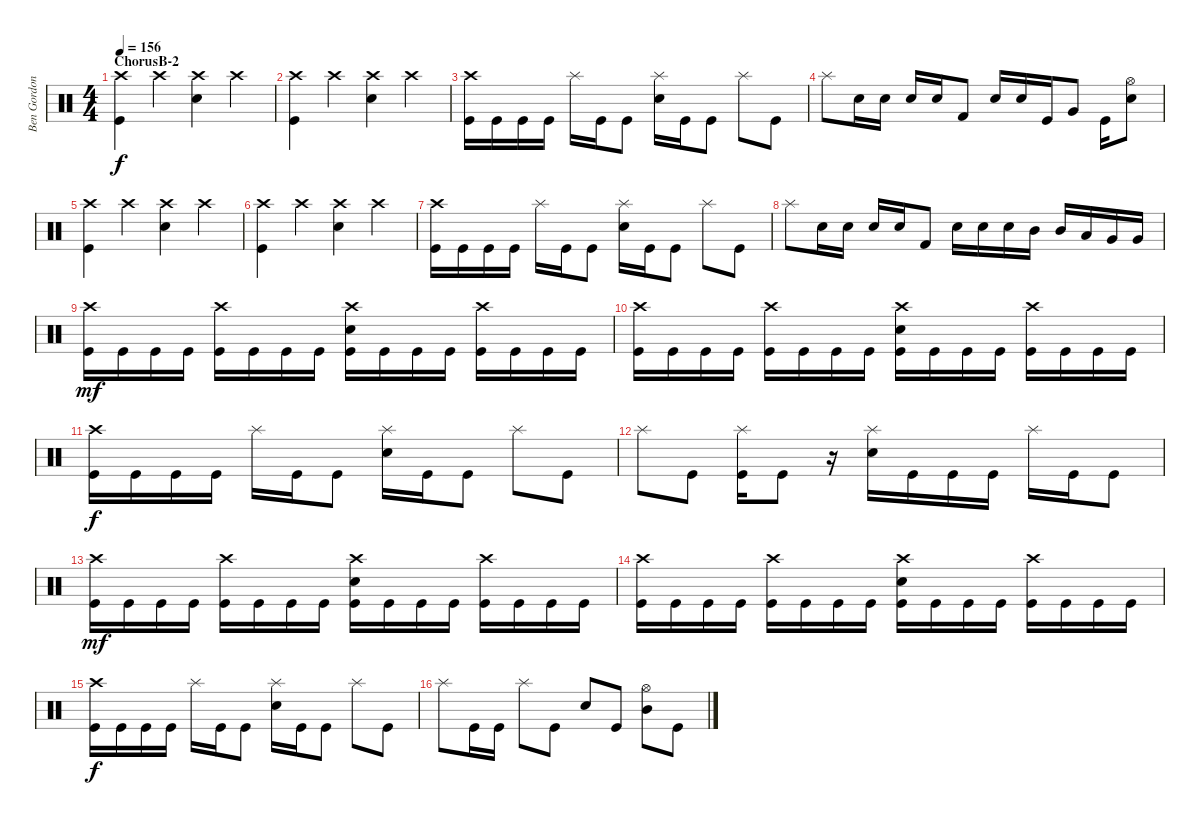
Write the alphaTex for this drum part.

\track ("Ben Gordon" "Ben Gordon") {instrument percussion}
\staff {score}
\articulation defaults
\ts (4 4)
\section ("" "ChorusB-2")
\tempo 156
\clef neutral
\ks c
("Crash high (hit)" "Kick (hit)").4{dy f} "Crash high (hit)".4 ("Crash high (hit)" "Electric Snare (hit)").4 "Crash high (hit)".4 |
("Crash high (hit)" "Kick (hit)").4 "Crash high (hit)".4 ("Crash high (hit)" "Electric Snare (hit)").4 "Crash high (hit)".4 |
("Crash high (hit)" "Kick (hit)").16 "Kick (hit)".16 "Kick (hit)".16 "Kick (hit)".16 "Splash (hit)".16 "Kick (hit)".16 "Kick (hit)".8 ("Splash (hit)" "Electric Snare (hit)").16 "Kick (hit)".16 "Kick (hit)".8 "Splash (hit)".8 "Kick (hit)".8 |
"Splash (hit)".8 "Electric Snare (hit)".16 "Electric Snare (hit)".16 "Electric Snare (hit)".16 "Electric Snare (hit)".16 "Kick (hit) 2".8 "Electric Snare (hit)".16 "Electric Snare (hit)".16 "Kick (hit)".16 "Very Low Tom (hit)".8 "Kick (hit)".16 ("Hi-Hat (open)" "Electric Snare (hit)").8 |
("Crash high (hit)" "Kick (hit)").4 "Crash high (hit)".4 ("Crash high (hit)" "Electric Snare (hit)").4 "Crash high (hit)".4 |
("Crash high (hit)" "Kick (hit)").4 "Crash high (hit)".4 ("Crash high (hit)" "Electric Snare (hit)").4 "Crash high (hit)".4 |
("Crash high (hit)" "Kick (hit)").16 "Kick (hit)".16 "Kick (hit)".16 "Kick (hit)".16 "Splash (hit)".16 "Kick (hit)".16 "Kick (hit)".8 ("Splash (hit)" "Electric Snare (hit)").16 "Kick (hit)".16 "Kick (hit)".8 "Splash (hit)".8 "Kick (hit)".8 |
"Splash (hit)".8 "Electric Snare (hit)".16 "Electric Snare (hit)".16 "Electric Snare (hit)".16 "Electric Snare (hit)".16 "Kick (hit) 2".8 "Electric Snare (hit)".16 "Electric Snare (hit)".16 "Electric Snare (hit)".16 "Mid Tom (hit)".16 "Mid Tom (hit)".16 "Low Tom (hit)".16 "Very Low Tom (hit)".16 "Very Low Tom (hit)".16 |
("Crash high (hit)" "Kick (hit)").16{dy mf} "Kick (hit)".16 "Kick (hit)".16 "Kick (hit)".16 ("Crash high (hit)" "Kick (hit)").16 "Kick (hit)".16 "Kick (hit)".16 "Kick (hit)".16 ("Crash high (hit)" "Electric Snare (hit)" "Kick (hit)").16 "Kick (hit)".16 "Kick (hit)".16 "Kick (hit)".16 ("Crash high (hit)" "Kick (hit)").16 "Kick (hit)".16 "Kick (hit)".16 "Kick (hit)".16 |
("Crash high (hit)" "Kick (hit)").16 "Kick (hit)".16 "Kick (hit)".16 "Kick (hit)".16 ("Crash high (hit)" "Kick (hit)").16 "Kick (hit)".16 "Kick (hit)".16 "Kick (hit)".16 ("Crash high (hit)" "Electric Snare (hit)" "Kick (hit)").16 "Kick (hit)".16 "Kick (hit)".16 "Kick (hit)".16 ("Crash high (hit)" "Kick (hit)").16 "Kick (hit)".16 "Kick (hit)".16 "Kick (hit)".16 |
("Crash high (hit)" "Kick (hit)").16{dy f} "Kick (hit)".16 "Kick (hit)".16 "Kick (hit)".16 "Splash (hit)".16 "Kick (hit)".16 "Kick (hit)".8 ("Splash (hit)" "Electric Snare (hit)").16 "Kick (hit)".16 "Kick (hit)".8 "Splash (hit)".8 "Kick (hit)".8 |
"Splash (hit)".8 "Kick (hit)".8 ("Splash (hit)" "Kick (hit)").16 "Kick (hit)".8 r.16 ("Splash (hit)" "Electric Snare (hit)").16 "Kick (hit)".16 "Kick (hit)".16 "Kick (hit)".16 "Splash (hit)".16 "Kick (hit)".16 "Kick (hit)".8 |
("Crash high (hit)" "Kick (hit)").16{dy mf} "Kick (hit)".16 "Kick (hit)".16 "Kick (hit)".16 ("Crash high (hit)" "Kick (hit)").16 "Kick (hit)".16 "Kick (hit)".16 "Kick (hit)".16 ("Crash high (hit)" "Electric Snare (hit)" "Kick (hit)").16 "Kick (hit)".16 "Kick (hit)".16 "Kick (hit)".16 ("Crash high (hit)" "Kick (hit)").16 "Kick (hit)".16 "Kick (hit)".16 "Kick (hit)".16 |
("Crash high (hit)" "Kick (hit)").16 "Kick (hit)".16 "Kick (hit)".16 "Kick (hit)".16 ("Crash high (hit)" "Kick (hit)").16 "Kick (hit)".16 "Kick (hit)".16 "Kick (hit)".16 ("Crash high (hit)" "Electric Snare (hit)" "Kick (hit)").16 "Kick (hit)".16 "Kick (hit)".16 "Kick (hit)".16 ("Crash high (hit)" "Kick (hit)").16 "Kick (hit)".16 "Kick (hit)".16 "Kick (hit)".16 |
("Crash high (hit)" "Kick (hit)").16{dy f} "Kick (hit)".16 "Kick (hit)".16 "Kick (hit)".16 "Splash (hit)".16 "Kick (hit)".16 "Kick (hit)".8 ("Splash (hit)" "Electric Snare (hit)").16 "Kick (hit)".16 "Kick (hit)".8 "Splash (hit)".8 "Kick (hit)".8 |
"Splash (hit)".8 "Kick (hit)".16 "Kick (hit)".16 "Splash (hit)".8 "Kick (hit)".8 "Electric Snare (hit)".8 "Kick (hit)".8 ("Hi-Hat (open)" "Mid Tom (hit)").8 "Kick (hit)".8
